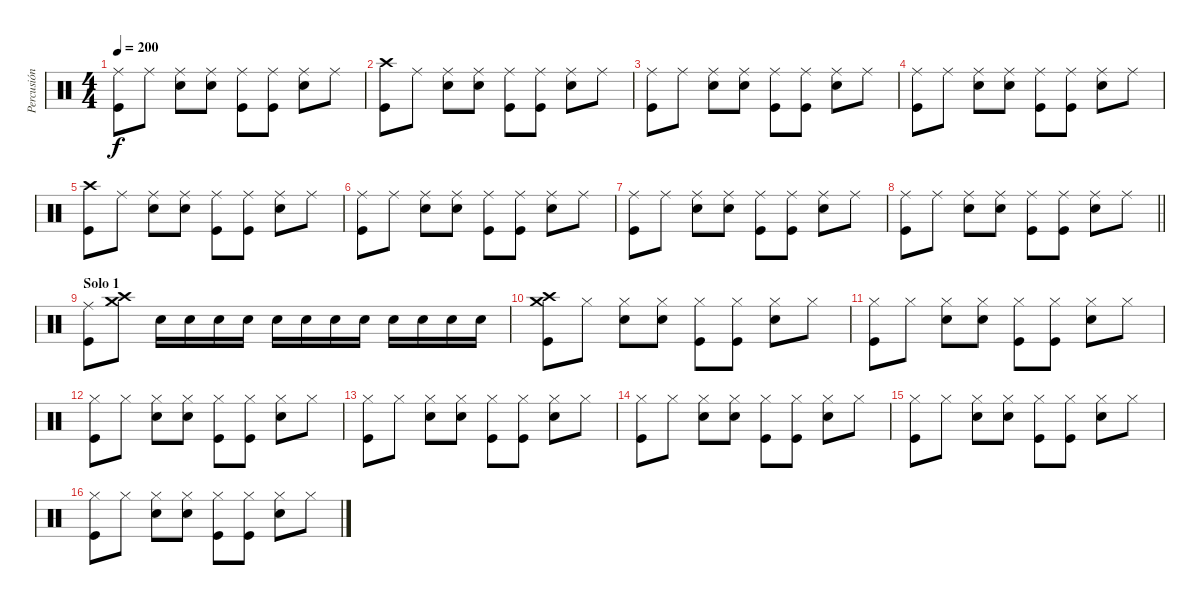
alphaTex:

\track ("Percusión" "Percusión") {instrument percussion}
\staff {score}
\articulation defaults
\ts (4 4)
\tempo 200
\clef neutral
\ks c
("Ride (middle)" "Kick (hit)").8{dy f} "Ride (middle)".8 ("Ride (middle)" "Snare (hit) 2").8 ("Ride (middle)" "Snare (hit) 2").8 ("Ride (middle)" "Kick (hit)").8 ("Ride (middle)" "Kick (hit)").8 ("Ride (middle)" "Snare (hit) 2").8 "Ride (middle)".8 |
("Crash high (hit)" "Kick (hit)").8 "Ride (middle)".8 ("Ride (middle)" "Snare (hit) 2").8 ("Ride (middle)" "Snare (hit) 2").8 ("Ride (middle)" "Kick (hit)").8 ("Ride (middle)" "Kick (hit)").8 ("Ride (middle)" "Snare (hit) 2").8 "Ride (middle)".8 |
("Ride (middle)" "Kick (hit)").8 "Ride (middle)".8 ("Ride (middle)" "Snare (hit) 2").8 ("Ride (middle)" "Snare (hit) 2").8 ("Ride (middle)" "Kick (hit)").8 ("Ride (middle)" "Kick (hit)").8 ("Ride (middle)" "Snare (hit) 2").8 "Ride (middle)".8 |
("Ride (middle)" "Kick (hit)").8 "Ride (middle)".8 ("Ride (middle)" "Snare (hit) 2").8 ("Ride (middle)" "Snare (hit) 2").8 ("Ride (middle)" "Kick (hit)").8 ("Ride (middle)" "Kick (hit)").8 ("Ride (middle)" "Snare (hit) 2").8 "Ride (middle)".8 |
("Crash high (hit)" "Kick (hit)").8 "Ride (middle)".8 ("Ride (middle)" "Snare (hit) 2").8 ("Ride (middle)" "Snare (hit) 2").8 ("Ride (middle)" "Kick (hit)").8 ("Ride (middle)" "Kick (hit)").8 ("Ride (middle)" "Snare (hit) 2").8 "Ride (middle)".8 |
("Ride (middle)" "Kick (hit)").8 "Ride (middle)".8 ("Ride (middle)" "Snare (hit) 2").8 ("Ride (middle)" "Snare (hit) 2").8 ("Ride (middle)" "Kick (hit)").8 ("Ride (middle)" "Kick (hit)").8 ("Ride (middle)" "Snare (hit) 2").8 "Ride (middle)".8 |
("Ride (middle)" "Kick (hit)").8 "Ride (middle)".8 ("Ride (middle)" "Snare (hit) 2").8 ("Ride (middle)" "Snare (hit) 2").8 ("Ride (middle)" "Kick (hit)").8 ("Ride (middle)" "Kick (hit)").8 ("Ride (middle)" "Snare (hit) 2").8 "Ride (middle)".8 |
\barLineRight lightlight
("Ride (middle)" "Kick (hit)").8 "Ride (middle)".8 ("Ride (middle)" "Snare (hit) 2").8 ("Ride (middle)" "Snare (hit) 2").8 ("Ride (middle)" "Kick (hit)").8 ("Ride (middle)" "Kick (hit)").8 ("Ride (middle)" "Snare (hit) 2").8 "Ride (middle)".8 |
\section ("" "Solo 1")
("Ride (middle)" "Kick (hit)").8 ("Crash high (hit)" "Crash medium (hit)").8 "Snare (hit) 2".16 "Snare (hit) 2".16 "Snare (hit) 2".16 "Snare (hit) 2".16 "Snare (hit) 2".16 "Snare (hit) 2".16 "Snare (hit) 2".16 "Snare (hit) 2".16 "Snare (hit) 2".16 "Snare (hit) 2".16 "Snare (hit) 2".16 "Snare (hit) 2".16 |
("Crash high (hit)" "Crash medium (hit)" "Kick (hit)").8 "Hi-Hat (closed)".8 ("Hi-Hat (closed)" "Snare (hit) 2").8 ("Hi-Hat (closed)" "Snare (hit) 2").8 ("Hi-Hat (closed)" "Kick (hit)").8 ("Hi-Hat (closed)" "Kick (hit)").8 ("Hi-Hat (closed)" "Snare (hit) 2").8 "Hi-Hat (closed)".8 |
("Hi-Hat (closed)" "Kick (hit)").8 "Hi-Hat (closed)".8 ("Hi-Hat (closed)" "Snare (hit) 2").8 ("Hi-Hat (closed)" "Snare (hit) 2").8 ("Hi-Hat (closed)" "Kick (hit)").8 ("Hi-Hat (closed)" "Kick (hit)").8 ("Hi-Hat (closed)" "Snare (hit) 2").8 "Hi-Hat (closed)".8 |
("Hi-Hat (closed)" "Kick (hit)").8 "Hi-Hat (closed)".8 ("Hi-Hat (closed)" "Snare (hit) 2").8 ("Hi-Hat (closed)" "Snare (hit) 2").8 ("Hi-Hat (closed)" "Kick (hit)").8 ("Hi-Hat (closed)" "Kick (hit)").8 ("Hi-Hat (closed)" "Snare (hit) 2").8 "Hi-Hat (closed)".8 |
("Hi-Hat (closed)" "Kick (hit)").8 "Hi-Hat (closed)".8 ("Hi-Hat (closed)" "Snare (hit) 2").8 ("Hi-Hat (closed)" "Snare (hit) 2").8 ("Hi-Hat (closed)" "Kick (hit)").8 ("Hi-Hat (closed)" "Kick (hit)").8 ("Hi-Hat (closed)" "Snare (hit) 2").8 "Hi-Hat (closed)".8 |
("Hi-Hat (closed)" "Kick (hit)").8 "Hi-Hat (closed)".8 ("Hi-Hat (closed)" "Snare (hit) 2").8 ("Hi-Hat (closed)" "Snare (hit) 2").8 ("Hi-Hat (closed)" "Kick (hit)").8 ("Hi-Hat (closed)" "Kick (hit)").8 ("Hi-Hat (closed)" "Snare (hit) 2").8 "Hi-Hat (closed)".8 |
("Hi-Hat (closed)" "Kick (hit)").8 "Hi-Hat (closed)".8 ("Hi-Hat (closed)" "Snare (hit) 2").8 ("Hi-Hat (closed)" "Snare (hit) 2").8 ("Hi-Hat (closed)" "Kick (hit)").8 ("Hi-Hat (closed)" "Kick (hit)").8 ("Hi-Hat (closed)" "Snare (hit) 2").8 "Hi-Hat (closed)".8 |
("Hi-Hat (closed)" "Kick (hit)").8 "Hi-Hat (closed)".8 ("Hi-Hat (closed)" "Snare (hit) 2").8 ("Hi-Hat (closed)" "Snare (hit) 2").8 ("Hi-Hat (closed)" "Kick (hit)").8 ("Hi-Hat (closed)" "Kick (hit)").8 ("Hi-Hat (closed)" "Snare (hit) 2").8 "Hi-Hat (closed)".8
